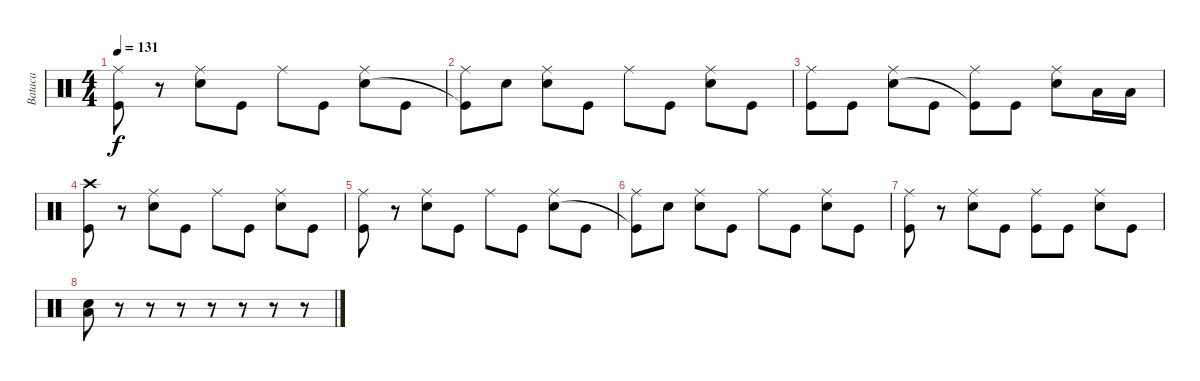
\track ("Bataca" "Bataca") {instrument percussion}
\staff {score}
\articulation defaults
\ts (4 4)
\tempo 131
\clef neutral
\ks c
("Ride (middle)" "Kick (hit)").8{dy f} r.8 ("Ride (middle)" "Snare (hit) 2").8 "Kick (hit)".8 "Ride (middle)".8 "Kick (hit)".8 ("Ride (middle)" "Snare (hit) 2").8 "Kick (hit)".8 |
("Ride (middle)" "Kick (hit)"{t}).8 "Snare (hit)".8 ("Ride (middle)" "Snare (hit) 2").8 "Kick (hit)".8 "Ride (middle)".8 "Kick (hit)".8 ("Ride (middle)" "Snare (hit) 2").8 "Kick (hit)".8 |
("Ride (middle)" "Kick (hit)").8 "Kick (hit)".8 ("Ride (middle)" "Snare (hit) 2").8 "Kick (hit)".8 ("Ride (middle)" "Kick (hit)"{t}).8 "Kick (hit)".8 ("Ride (middle)" "Snare (hit) 2").8 "Low Tom (hit)".16 "Low Tom (hit)".16 |
("Crash high (hit)" "Kick (hit)").8 r.8 ("Ride (middle)" "Snare (hit) 2").8 "Kick (hit)".8 "Ride (middle)".8 "Kick (hit)".8 ("Ride (middle)" "Snare (hit) 2").8 "Kick (hit)".8 |
("Ride (middle)" "Kick (hit)").8 r.8 ("Ride (middle)" "Snare (hit) 2").8 "Kick (hit)".8 "Ride (middle)".8 "Kick (hit)".8 ("Ride (middle)" "Snare (hit) 2").8 "Kick (hit)".8 |
("Ride (middle)" "Kick (hit)"{t}).8 "Snare (hit)".8 ("Ride (middle)" "Snare (hit) 2").8 "Kick (hit)".8 "Ride (middle)".8 "Kick (hit)".8 ("Ride (middle)" "Snare (hit) 2").8 "Kick (hit)".8 |
("Ride (middle)" "Kick (hit)").8 r.8 ("Ride (middle)" "Snare (hit) 2").8 "Kick (hit)".8 ("Ride (middle)" "Kick (hit)").8 "Kick (hit)".8 ("Ride (middle)" "Snare (hit) 2").8 "Kick (hit)".8 |
("Low Tom (hit)" "Snare (hit) 2").8 r.8 r.8 r.8 r.8 r.8 r.8 r.8
